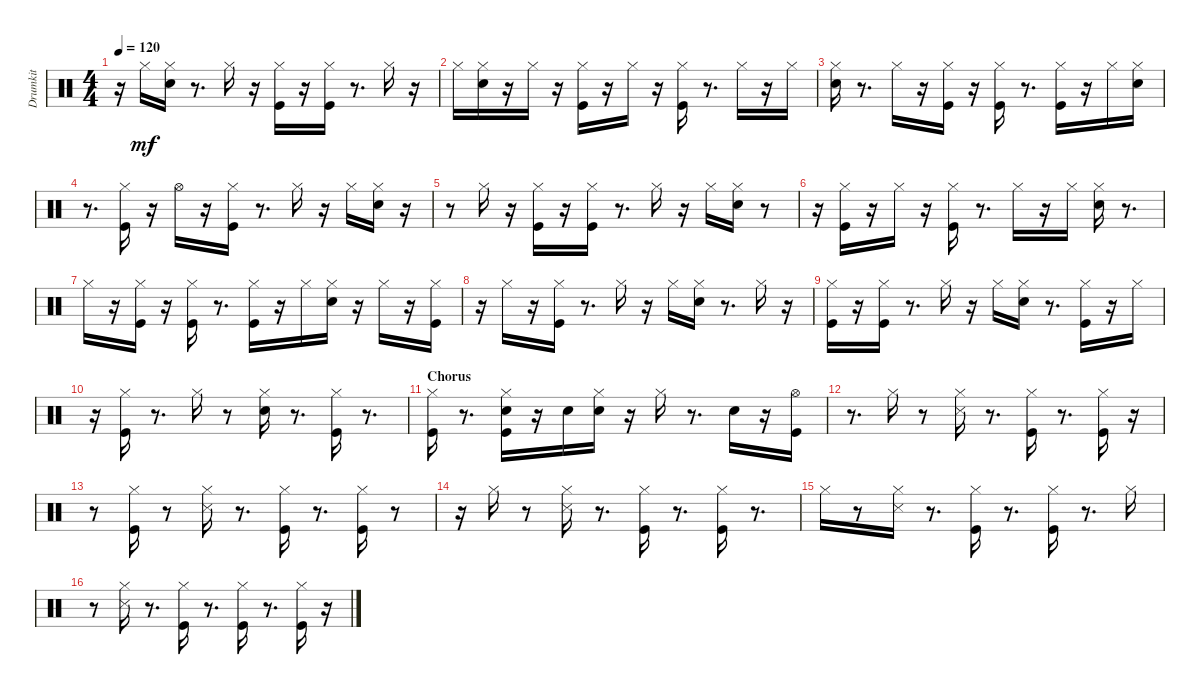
\track ("Drumkit" "Drumkit") {instrument percussion}
\staff {score}
\articulation defaults
\ts (4 4)
\tempo 120
\clef neutral
\ks aminor
r.16{dy mf} "Hi-Hat (closed)".16 ("Snare (hit) 2" "Hi-Hat (closed)").16 r.8{d} "Hi-Hat (closed)".16 r.16 ("Kick (hit)" "Hi-Hat (closed)").16 r.16 ("Kick (hit)" "Hi-Hat (closed)").16 r.8{d} "Hi-Hat (closed)".16 r.16 |
"Hi-Hat (closed)".16 ("Snare (hit) 2" "Hi-Hat (closed)").16 r.16 "Hi-Hat (closed)".16 r.16 ("Kick (hit)" "Hi-Hat (closed)").16 r.16 "Hi-Hat (closed)".16 r.16 ("Kick (hit)" "Hi-Hat (closed)").16 r.8{d} "Hi-Hat (closed)".16 r.16 "Hi-Hat (closed)".16 |
("Snare (hit) 2" "Hi-Hat (closed)").16 r.8{d} "Hi-Hat (closed)".16 r.16 ("Kick (hit)" "Hi-Hat (closed)").16 r.16 ("Kick (hit)" "Hi-Hat (closed)").16 r.8{d} ("Kick (hit)" "Hi-Hat (closed)").16 r.16 "Hi-Hat (closed)".16 ("Snare (hit) 2" "Hi-Hat (closed)").16 |
r.8{d} ("Kick (hit)" "Hi-Hat (closed)").16 r.16 "Hi-Hat (open)".16 r.16 ("Kick (hit)" "Hi-Hat (closed)").16 r.8{d} "Hi-Hat (closed)".16 r.16 "Hi-Hat (closed)".16 ("Snare (hit) 2" "Hi-Hat (closed)").16 r.16 |
r.8 "Hi-Hat (closed)".16 r.16 ("Kick (hit)" "Hi-Hat (closed)").16 r.16 ("Kick (hit)" "Hi-Hat (closed)").16 r.8{d} "Hi-Hat (closed)".16 r.16 "Hi-Hat (closed)".16 ("Snare (hit) 2" "Hi-Hat (closed)").16 r.8 |
r.16 ("Kick (hit)" "Hi-Hat (closed)").16 r.16 "Hi-Hat (closed)".16 r.16 ("Kick (hit)" "Hi-Hat (closed)").16 r.8{d} "Hi-Hat (closed)".16 r.16 "Hi-Hat (closed)".16 ("Snare (hit) 2" "Hi-Hat (closed)").16 r.8{d} |
"Hi-Hat (closed)".16 r.16 ("Kick (hit)" "Hi-Hat (closed)").16 r.16 ("Kick (hit)" "Hi-Hat (closed)").16 r.8{d} ("Kick (hit)" "Hi-Hat (closed)").16 r.16 "Hi-Hat (closed)".16 ("Snare (hit) 2" "Hi-Hat (closed)").16 r.16 "Hi-Hat (closed)".16 r.16 ("Kick (hit)" "Hi-Hat (closed)").16 |
r.16 "Hi-Hat (closed)".16 r.16 ("Kick (hit)" "Hi-Hat (closed)").16 r.8{d} "Hi-Hat (closed)".16 r.16 "Hi-Hat (closed)".16 ("Snare (hit) 2" "Hi-Hat (closed)").16 r.8{d} "Hi-Hat (closed)".16 r.16 |
("Kick (hit)" "Hi-Hat (closed)").16 r.16 ("Kick (hit)" "Hi-Hat (closed)").16 r.8{d} "Hi-Hat (closed)".16 r.16 "Hi-Hat (closed)".16 ("Snare (hit) 2" "Hi-Hat (closed)").16 r.8{d} ("Kick (hit)" "Hi-Hat (closed)").16 r.16 "Hi-Hat (closed)".16 |
r.16 ("Kick (hit)" "Hi-Hat (closed)").16 r.8{d} "Hi-Hat (closed)".16 r.8 ("Snare (hit) 2" "Hi-Hat (closed)").16 r.8{d} ("Kick (hit)" "Hi-Hat (closed)").16 r.8{d} |
\section ("" "Chorus")
("Kick (hit)" "Hi-Hat (closed)").16 r.8{d} ("Kick (hit)" "Snare (hit) 2" "Hi-Hat (closed)").16 r.16 "Snare (hit) 2".16 ("Snare (hit) 2" "Hi-Hat (closed)").16 r.16 "Hi-Hat (closed)".16 r.8{d} "Snare (hit) 2".16 r.16 ("Kick (hit)" "Hi-Hat (open)").16 |
r.8{d} "Hi-Hat (closed)".16 r.8 ("Snare (side stick) 3" "Hi-Hat (closed)").16 r.8{d} ("Kick (hit)" "Hi-Hat (closed)").16 r.8{d} ("Kick (hit)" "Hi-Hat (closed)").16 r.16 |
r.8 ("Kick (hit)" "Hi-Hat (closed)").16 r.8 ("Snare (side stick) 3" "Hi-Hat (closed)").16 r.8{d} ("Kick (hit)" "Hi-Hat (closed)").16 r.8{d} ("Kick (hit)" "Hi-Hat (closed)").16 r.8 |
r.16 "Hi-Hat (closed)".16 r.8 ("Snare (side stick) 3" "Hi-Hat (closed)").16 r.8{d} ("Kick (hit)" "Hi-Hat (closed)").16 r.8{d} ("Kick (hit)" "Hi-Hat (closed)").16 r.8{d} |
"Hi-Hat (closed)".16 r.8 ("Snare (side stick) 3" "Hi-Hat (closed)").16 r.8{d} ("Kick (hit)" "Hi-Hat (closed)").16 r.8{d} ("Kick (hit)" "Hi-Hat (closed)").16 r.8{d} "Hi-Hat (closed)".16 |
r.8 ("Snare (side stick) 3" "Hi-Hat (closed)").16 r.8{d} ("Kick (hit)" "Hi-Hat (closed)").16 r.8{d} ("Kick (hit)" "Hi-Hat (closed)").16 r.8{d} ("Kick (hit)" "Hi-Hat (closed)").16 r.16
